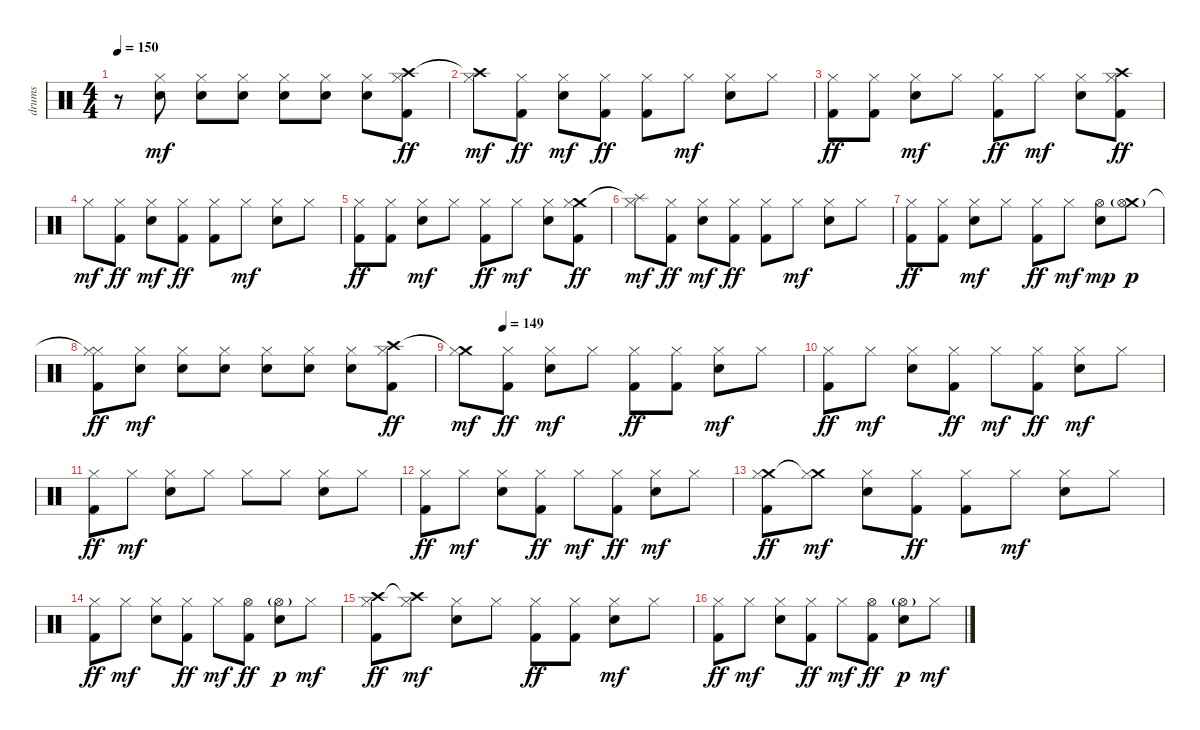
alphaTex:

\track ("drums" "drums") {instrument percussion}
\staff {score}
\articulation defaults
\ts (4 4)
\tempo 150
\clef neutral
\ks c
r.8{dy mf} ("Hi-Hat (closed)" "Electric Snare (hit)").8 ("Hi-Hat (closed)" "Electric Snare (hit)").8 ("Hi-Hat (closed)" "Electric Snare (hit)").8 ("Hi-Hat (closed)" "Electric Snare (hit)").8 ("Hi-Hat (closed)" "Electric Snare (hit)").8 ("Hi-Hat (closed)" "Electric Snare (hit)").8 ("Crash high (hit)" "Hi-Hat (closed)" "Kick (hit) 2").8{dy ff} |
("Crash high (hit)"{t} "Hi-Hat (closed)").8{dy mf} ("Hi-Hat (closed)" "Kick (hit) 2").8{dy ff} ("Hi-Hat (closed)" "Electric Snare (hit)").8{dy mf} ("Hi-Hat (closed)" "Kick (hit) 2").8{dy ff} ("Hi-Hat (closed)" "Kick (hit) 2").8 "Hi-Hat (closed)".8{dy mf} ("Hi-Hat (closed)" "Electric Snare (hit)").8 "Hi-Hat (closed)".8 |
("Hi-Hat (closed)" "Kick (hit) 2").8{dy ff} ("Hi-Hat (closed)" "Kick (hit) 2").8 ("Hi-Hat (closed)" "Electric Snare (hit)").8{dy mf} "Hi-Hat (closed)".8 ("Hi-Hat (closed)" "Kick (hit) 2").8{dy ff} "Hi-Hat (closed)".8{dy mf} ("Hi-Hat (closed)" "Electric Snare (hit)").8 ("Crash high (hit)" "Hi-Hat (closed)" "Kick (hit) 2").8{dy ff} |
"Hi-Hat (closed)".8{dy mf} ("Hi-Hat (closed)" "Kick (hit) 2").8{dy ff} ("Hi-Hat (closed)" "Electric Snare (hit)").8{dy mf} ("Hi-Hat (closed)" "Kick (hit) 2").8{dy ff} ("Hi-Hat (closed)" "Kick (hit) 2").8 "Hi-Hat (closed)".8{dy mf} ("Hi-Hat (closed)" "Electric Snare (hit)").8 "Hi-Hat (closed)".8 |
("Hi-Hat (closed)" "Kick (hit) 2").8{dy ff} ("Hi-Hat (closed)" "Kick (hit) 2").8 ("Hi-Hat (closed)" "Electric Snare (hit)").8{dy mf} "Hi-Hat (closed)".8 ("Hi-Hat (closed)" "Kick (hit) 2").8{dy ff} "Hi-Hat (closed)".8{dy mf} ("Hi-Hat (closed)" "Electric Snare (hit)").8 ("Crash medium (hit)" "Hi-Hat (closed)" "Kick (hit) 2").8{dy ff} |
("Splash (hit)"{t} "Hi-Hat (closed)").8{dy mf} ("Hi-Hat (closed)" "Kick (hit) 2").8{dy ff} ("Hi-Hat (closed)" "Electric Snare (hit)").8{dy mf} ("Hi-Hat (closed)" "Kick (hit) 2").8{dy ff} ("Hi-Hat (closed)" "Kick (hit) 2").8 "Hi-Hat (closed)".8{dy mf} ("Hi-Hat (closed)" "Electric Snare (hit)").8 "Hi-Hat (closed)".8 |
("Hi-Hat (closed)" "Kick (hit) 2").8{dy ff} ("Hi-Hat (closed)" "Kick (hit) 2").8 ("Hi-Hat (closed)" "Electric Snare (hit)").8{dy mf} "Hi-Hat (closed)".8 ("Hi-Hat (closed)" "Kick (hit) 2").8{dy ff} "Hi-Hat (closed)".8{dy mf} ("Hi-Hat (open)" "Electric Snare (hit)").8{dy mp} ("Crash medium (hit)" "Hi-Hat (open)"{g}).8{dy p} |
("Hi-Hat (closed)"{t} "Hi-Hat (closed)" "Kick (hit) 2").8{dy ff} ("Hi-Hat (closed)" "Electric Snare (hit)").8{dy mf} ("Hi-Hat (closed)" "Electric Snare (hit)").8 ("Hi-Hat (closed)" "Electric Snare (hit)").8 ("Hi-Hat (closed)" "Electric Snare (hit)").8 ("Hi-Hat (closed)" "Electric Snare (hit)").8 ("Hi-Hat (closed)" "Electric Snare (hit)").8 ("Crash high (hit)" "Hi-Hat (closed)" "Kick (hit) 2").8{dy ff} |
\tempo (149 0.125)
("Crash medium (hit)"{t} "Hi-Hat (closed)").8{dy mf} ("Hi-Hat (closed)" "Kick (hit) 2").8{dy ff} ("Hi-Hat (closed)" "Electric Snare (hit)").8{dy mf} "Hi-Hat (closed)".8 ("Hi-Hat (closed)" "Kick (hit) 2").8{dy ff} ("Hi-Hat (closed)" "Kick (hit) 2").8 ("Hi-Hat (closed)" "Electric Snare (hit)").8{dy mf} "Hi-Hat (closed)".8 |
("Hi-Hat (closed)" "Kick (hit) 2").8{dy ff} "Hi-Hat (closed)".8{dy mf} ("Hi-Hat (closed)" "Electric Snare (hit)").8 ("Hi-Hat (closed)" "Kick (hit) 2").8{dy ff} "Hi-Hat (closed)".8{dy mf} ("Hi-Hat (closed)" "Kick (hit) 2").8{dy ff} ("Hi-Hat (closed)" "Electric Snare (hit)").8{dy mf} "Hi-Hat (closed)".8 |
("Hi-Hat (closed)" "Kick (hit) 2").8{dy ff} "Hi-Hat (closed)".8{dy mf} ("Hi-Hat (closed)" "Electric Snare (hit)").8 "Hi-Hat (closed)".8 "Hi-Hat (closed)".8 "Hi-Hat (closed)".8 ("Hi-Hat (closed)" "Electric Snare (hit)").8 "Hi-Hat (closed)".8 |
("Hi-Hat (closed)" "Kick (hit) 2").8{dy ff} "Hi-Hat (closed)".8{dy mf} ("Hi-Hat (closed)" "Electric Snare (hit)").8 ("Hi-Hat (closed)" "Kick (hit) 2").8{dy ff} "Hi-Hat (closed)".8{dy mf} ("Hi-Hat (closed)" "Kick (hit) 2").8{dy ff} ("Hi-Hat (closed)" "Electric Snare (hit)").8{dy mf} "Hi-Hat (closed)".8 |
("Crash medium (hit)" "Hi-Hat (closed)" "Kick (hit) 2").8{dy ff} ("Crash medium (hit)"{t} "Hi-Hat (closed)").8{dy mf} ("Hi-Hat (closed)" "Electric Snare (hit)").8 ("Hi-Hat (closed)" "Kick (hit) 2").8{dy ff} ("Hi-Hat (closed)" "Kick (hit) 2").8 "Hi-Hat (closed)".8{dy mf} ("Hi-Hat (closed)" "Electric Snare (hit)").8 "Hi-Hat (closed)".8 |
("Hi-Hat (closed)" "Kick (hit) 2").8{dy ff} "Hi-Hat (closed)".8{dy mf} ("Hi-Hat (closed)" "Electric Snare (hit)").8 ("Hi-Hat (closed)" "Kick (hit) 2").8{dy ff} "Hi-Hat (closed)".8{dy mf} ("Hi-Hat (open)" "Kick (hit) 2").8{dy ff} ("Hi-Hat (open)"{g} "Electric Snare (hit)").8{dy p} "Hi-Hat (closed)".8{dy mf} |
("Crash high (hit)" "Hi-Hat (closed)" "Kick (hit) 2").8{dy ff} ("Crash high (hit)"{t} "Hi-Hat (closed)").8{dy mf} ("Hi-Hat (closed)" "Electric Snare (hit)").8 "Hi-Hat (closed)".8 ("Hi-Hat (closed)" "Kick (hit) 2").8{dy ff} ("Hi-Hat (closed)" "Kick (hit) 2").8 ("Hi-Hat (closed)" "Electric Snare (hit)").8{dy mf} "Hi-Hat (closed)".8 |
("Hi-Hat (closed)" "Kick (hit) 2").8{dy ff} "Hi-Hat (closed)".8{dy mf} ("Hi-Hat (closed)" "Electric Snare (hit)").8 ("Hi-Hat (closed)" "Kick (hit) 2").8{dy ff} "Hi-Hat (closed)".8{dy mf} ("Hi-Hat (open)" "Kick (hit) 2").8{dy ff} ("Hi-Hat (open)"{g} "Electric Snare (hit)").8{dy p} "Hi-Hat (closed)".8{dy mf}
